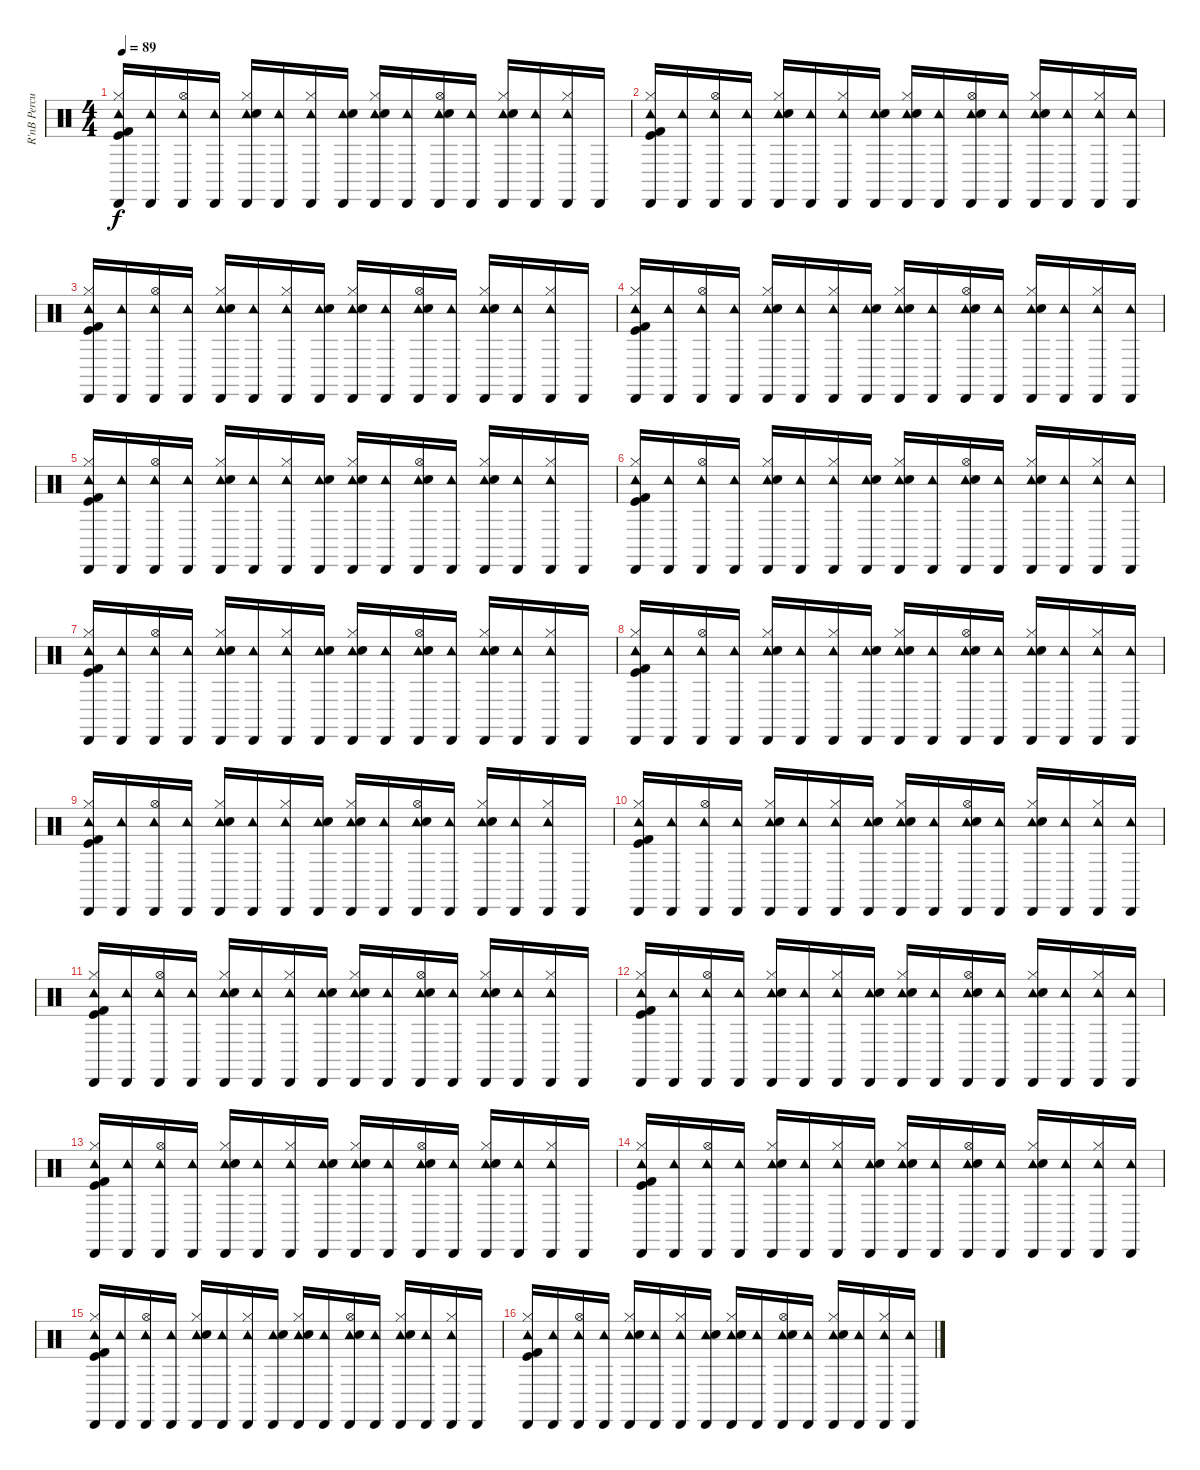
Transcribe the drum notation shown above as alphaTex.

\track ("R'nB Percussion" "R'nB Percu") {instrument percussion}
\staff {score}
\articulation defaults
\ts (4 4)
\tempo 89
\clef neutral
\ks c
("Tambourine (hit)" "Cabasa (hit)" "Kick (hit) 2" "Hi-Hat (closed)" "Kick (hit)").16{dy f} ("Cabasa (hit)" "Tambourine (hit)").16 ("Tambourine (hit)" "Cabasa (hit)" "Hi-Hat (open)").16 ("Tambourine (hit)" "Cabasa (hit)").16 ("Cabasa (hit)" "Tambourine (hit)" "Hi-Hat (closed)" "Hand Clap (hit)").16 ("Cabasa (hit)" "Tambourine (hit)").16 ("Tambourine (hit)" "Cabasa (hit)" "Hi-Hat (closed)").16 ("Cabasa (hit)" "Tambourine (hit)" "Hand Clap (hit)").16 ("Cabasa (hit)" "Tambourine (hit)" "Hand Clap (hit)" "Hi-Hat (closed)").16 ("Tambourine (hit)" "Cabasa (hit)").16 ("Tambourine (hit)" "Cabasa (hit)" "Hi-Hat (open)" "Hand Clap (hit)").16 ("Tambourine (hit)" "Cabasa (hit)").16 ("Cabasa (hit)" "Tambourine (hit)" "Hi-Hat (closed)" "Hand Clap (hit)").16 ("Cabasa (hit)" "Tambourine (hit)").16 ("Cabasa (hit)" "Tambourine (hit)" "Hi-Hat (closed)").16 "Cabasa (hit)".16 |
("Cabasa (hit)" "Tambourine (hit)" "Kick (hit)" "Kick (hit) 2" "Hi-Hat (closed)").16 ("Tambourine (hit)" "Cabasa (hit)").16 ("Cabasa (hit)" "Tambourine (hit)" "Hi-Hat (open)").16 ("Tambourine (hit)" "Cabasa (hit)").16 ("Cabasa (hit)" "Tambourine (hit)" "Hi-Hat (closed)" "Hand Clap (hit)").16 ("Tambourine (hit)" "Cabasa (hit)").16 ("Cabasa (hit)" "Tambourine (hit)" "Hi-Hat (closed)").16 ("Cabasa (hit)" "Tambourine (hit)" "Hand Clap (hit)").16 ("Cabasa (hit)" "Tambourine (hit)" "Hi-Hat (closed)" "Hand Clap (hit)").16 ("Tambourine (hit)" "Cabasa (hit)").16 ("Tambourine (hit)" "Cabasa (hit)" "Hi-Hat (open)" "Hand Clap (hit)").16 ("Tambourine (hit)" "Cabasa (hit)").16 ("Cabasa (hit)" "Tambourine (hit)" "Hi-Hat (closed)" "Hand Clap (hit)").16 ("Cabasa (hit)" "Tambourine (hit)").16 ("Tambourine (hit)" "Cabasa (hit)" "Hi-Hat (closed)").16 ("Tambourine (hit)" "Cabasa (hit)").16 |
("Cabasa (hit)" "Tambourine (hit)" "Kick (hit)" "Kick (hit) 2" "Hi-Hat (closed)").16 ("Tambourine (hit)" "Cabasa (hit)").16 ("Tambourine (hit)" "Cabasa (hit)" "Hi-Hat (open)").16 ("Cabasa (hit)" "Tambourine (hit)").16 ("Cabasa (hit)" "Tambourine (hit)" "Hi-Hat (closed)" "Hand Clap (hit)").16 ("Cabasa (hit)" "Tambourine (hit)").16 ("Cabasa (hit)" "Tambourine (hit)" "Hi-Hat (closed)").16 ("Cabasa (hit)" "Tambourine (hit)" "Hand Clap (hit)").16 ("Tambourine (hit)" "Cabasa (hit)" "Hi-Hat (closed)" "Hand Clap (hit)").16 ("Cabasa (hit)" "Tambourine (hit)").16 ("Tambourine (hit)" "Cabasa (hit)" "Hi-Hat (open)" "Hand Clap (hit)").16 ("Tambourine (hit)" "Cabasa (hit)").16 ("Cabasa (hit)" "Tambourine (hit)" "Hand Clap (hit)" "Hi-Hat (closed)").16 ("Tambourine (hit)" "Cabasa (hit)").16 ("Tambourine (hit)" "Cabasa (hit)" "Hi-Hat (closed)").16 "Cabasa (hit)".16 |
("Cabasa (hit)" "Tambourine (hit)" "Kick (hit) 2" "Kick (hit)" "Hi-Hat (closed)").16 ("Cabasa (hit)" "Tambourine (hit)").16 ("Tambourine (hit)" "Cabasa (hit)" "Hi-Hat (open)").16 ("Cabasa (hit)" "Tambourine (hit)").16 ("Tambourine (hit)" "Cabasa (hit)" "Hi-Hat (closed)" "Hand Clap (hit)").16 ("Tambourine (hit)" "Cabasa (hit)").16 ("Cabasa (hit)" "Tambourine (hit)" "Hi-Hat (closed)").16 ("Tambourine (hit)" "Cabasa (hit)" "Hand Clap (hit)").16 ("Cabasa (hit)" "Tambourine (hit)" "Hi-Hat (closed)" "Hand Clap (hit)").16 ("Tambourine (hit)" "Cabasa (hit)").16 ("Cabasa (hit)" "Tambourine (hit)" "Hi-Hat (open)" "Hand Clap (hit)").16 ("Tambourine (hit)" "Cabasa (hit)").16 ("Cabasa (hit)" "Tambourine (hit)" "Hi-Hat (closed)" "Hand Clap (hit)").16 ("Cabasa (hit)" "Tambourine (hit)").16 ("Tambourine (hit)" "Cabasa (hit)" "Hi-Hat (closed)").16 ("Tambourine (hit)" "Cabasa (hit)").16 |
("Tambourine (hit)" "Cabasa (hit)" "Kick (hit) 2" "Hi-Hat (closed)" "Kick (hit)").16 ("Cabasa (hit)" "Tambourine (hit)").16 ("Tambourine (hit)" "Cabasa (hit)" "Hi-Hat (open)").16 ("Tambourine (hit)" "Cabasa (hit)").16 ("Tambourine (hit)" "Cabasa (hit)" "Hi-Hat (closed)" "Hand Clap (hit)").16 ("Cabasa (hit)" "Tambourine (hit)").16 ("Cabasa (hit)" "Tambourine (hit)" "Hi-Hat (closed)").16 ("Cabasa (hit)" "Tambourine (hit)" "Hand Clap (hit)").16 ("Cabasa (hit)" "Tambourine (hit)" "Hand Clap (hit)" "Hi-Hat (closed)").16 ("Cabasa (hit)" "Tambourine (hit)").16 ("Tambourine (hit)" "Cabasa (hit)" "Hi-Hat (open)" "Hand Clap (hit)").16 ("Tambourine (hit)" "Cabasa (hit)").16 ("Cabasa (hit)" "Tambourine (hit)" "Hi-Hat (closed)" "Hand Clap (hit)").16 ("Cabasa (hit)" "Tambourine (hit)").16 ("Tambourine (hit)" "Cabasa (hit)" "Hi-Hat (closed)").16 "Cabasa (hit)".16 |
("Cabasa (hit)" "Tambourine (hit)" "Hi-Hat (closed)" "Kick (hit)" "Kick (hit) 2").16 ("Tambourine (hit)" "Cabasa (hit)").16 ("Cabasa (hit)" "Tambourine (hit)" "Hi-Hat (open)").16 ("Cabasa (hit)" "Tambourine (hit)").16 ("Cabasa (hit)" "Tambourine (hit)" "Hi-Hat (closed)" "Hand Clap (hit)").16 ("Tambourine (hit)" "Cabasa (hit)").16 ("Cabasa (hit)" "Tambourine (hit)" "Hi-Hat (closed)").16 ("Tambourine (hit)" "Cabasa (hit)" "Hand Clap (hit)").16 ("Cabasa (hit)" "Tambourine (hit)" "Hand Clap (hit)" "Hi-Hat (closed)").16 ("Tambourine (hit)" "Cabasa (hit)").16 ("Cabasa (hit)" "Tambourine (hit)" "Hi-Hat (open)" "Hand Clap (hit)").16 ("Tambourine (hit)" "Cabasa (hit)").16 ("Cabasa (hit)" "Tambourine (hit)" "Hi-Hat (closed)" "Hand Clap (hit)").16 ("Tambourine (hit)" "Cabasa (hit)").16 ("Tambourine (hit)" "Cabasa (hit)" "Hi-Hat (closed)").16 ("Tambourine (hit)" "Cabasa (hit)").16 |
("Tambourine (hit)" "Cabasa (hit)" "Kick (hit) 2" "Hi-Hat (closed)" "Kick (hit)").16 ("Tambourine (hit)" "Cabasa (hit)").16 ("Tambourine (hit)" "Cabasa (hit)" "Hi-Hat (open)").16 ("Tambourine (hit)" "Cabasa (hit)").16 ("Tambourine (hit)" "Cabasa (hit)" "Hand Clap (hit)" "Hi-Hat (closed)").16 ("Tambourine (hit)" "Cabasa (hit)").16 ("Tambourine (hit)" "Cabasa (hit)" "Hi-Hat (closed)").16 ("Tambourine (hit)" "Cabasa (hit)" "Hand Clap (hit)").16 ("Tambourine (hit)" "Cabasa (hit)" "Hand Clap (hit)" "Hi-Hat (closed)").16 ("Cabasa (hit)" "Tambourine (hit)").16 ("Cabasa (hit)" "Tambourine (hit)" "Hi-Hat (open)" "Hand Clap (hit)").16 ("Tambourine (hit)" "Cabasa (hit)").16 ("Cabasa (hit)" "Tambourine (hit)" "Hi-Hat (closed)" "Hand Clap (hit)").16 ("Tambourine (hit)" "Cabasa (hit)").16 ("Cabasa (hit)" "Tambourine (hit)" "Hi-Hat (closed)").16 "Cabasa (hit)".16 |
("Cabasa (hit)" "Tambourine (hit)" "Kick (hit) 2" "Kick (hit)" "Hi-Hat (closed)").16 ("Cabasa (hit)" "Tambourine (hit)").16 ("Tambourine (hit)" "Cabasa (hit)" "Hi-Hat (open)").16 ("Cabasa (hit)" "Tambourine (hit)").16 ("Tambourine (hit)" "Cabasa (hit)" "Hi-Hat (closed)" "Hand Clap (hit)").16 ("Tambourine (hit)" "Cabasa (hit)").16 ("Cabasa (hit)" "Tambourine (hit)" "Hi-Hat (closed)").16 ("Tambourine (hit)" "Cabasa (hit)" "Hand Clap (hit)").16 ("Cabasa (hit)" "Tambourine (hit)" "Hi-Hat (closed)" "Hand Clap (hit)").16 ("Tambourine (hit)" "Cabasa (hit)").16 ("Cabasa (hit)" "Tambourine (hit)" "Hi-Hat (open)" "Hand Clap (hit)").16 ("Tambourine (hit)" "Cabasa (hit)").16 ("Cabasa (hit)" "Tambourine (hit)" "Hi-Hat (closed)" "Hand Clap (hit)").16 ("Cabasa (hit)" "Tambourine (hit)").16 ("Tambourine (hit)" "Cabasa (hit)" "Hi-Hat (closed)").16 ("Tambourine (hit)" "Cabasa (hit)").16 |
("Tambourine (hit)" "Cabasa (hit)" "Kick (hit) 2" "Hi-Hat (closed)" "Kick (hit)").16 ("Cabasa (hit)" "Tambourine (hit)").16 ("Tambourine (hit)" "Cabasa (hit)" "Hi-Hat (open)").16 ("Tambourine (hit)" "Cabasa (hit)").16 ("Tambourine (hit)" "Cabasa (hit)" "Hi-Hat (closed)" "Hand Clap (hit)").16 ("Cabasa (hit)" "Tambourine (hit)").16 ("Cabasa (hit)" "Tambourine (hit)" "Hi-Hat (closed)").16 ("Cabasa (hit)" "Tambourine (hit)" "Hand Clap (hit)").16 ("Cabasa (hit)" "Tambourine (hit)" "Hand Clap (hit)" "Hi-Hat (closed)").16 ("Cabasa (hit)" "Tambourine (hit)").16 ("Tambourine (hit)" "Cabasa (hit)" "Hi-Hat (open)" "Hand Clap (hit)").16 ("Tambourine (hit)" "Cabasa (hit)").16 ("Cabasa (hit)" "Tambourine (hit)" "Hi-Hat (closed)" "Hand Clap (hit)").16 ("Cabasa (hit)" "Tambourine (hit)").16 ("Tambourine (hit)" "Cabasa (hit)" "Hi-Hat (closed)").16 "Cabasa (hit)".16 |
("Cabasa (hit)" "Tambourine (hit)" "Hi-Hat (closed)" "Kick (hit)" "Kick (hit) 2").16 ("Tambourine (hit)" "Cabasa (hit)").16 ("Cabasa (hit)" "Tambourine (hit)" "Hi-Hat (open)").16 ("Cabasa (hit)" "Tambourine (hit)").16 ("Cabasa (hit)" "Tambourine (hit)" "Hi-Hat (closed)" "Hand Clap (hit)").16 ("Tambourine (hit)" "Cabasa (hit)").16 ("Cabasa (hit)" "Tambourine (hit)" "Hi-Hat (closed)").16 ("Tambourine (hit)" "Cabasa (hit)" "Hand Clap (hit)").16 ("Cabasa (hit)" "Tambourine (hit)" "Hand Clap (hit)" "Hi-Hat (closed)").16 ("Tambourine (hit)" "Cabasa (hit)").16 ("Cabasa (hit)" "Tambourine (hit)" "Hi-Hat (open)" "Hand Clap (hit)").16 ("Tambourine (hit)" "Cabasa (hit)").16 ("Cabasa (hit)" "Tambourine (hit)" "Hi-Hat (closed)" "Hand Clap (hit)").16 ("Tambourine (hit)" "Cabasa (hit)").16 ("Tambourine (hit)" "Cabasa (hit)" "Hi-Hat (closed)").16 ("Tambourine (hit)" "Cabasa (hit)").16 |
("Cabasa (hit)" "Tambourine (hit)" "Kick (hit)" "Hi-Hat (closed)" "Kick (hit) 2").16 ("Tambourine (hit)" "Cabasa (hit)").16 ("Cabasa (hit)" "Tambourine (hit)" "Hi-Hat (open)").16 ("Cabasa (hit)" "Tambourine (hit)").16 ("Tambourine (hit)" "Cabasa (hit)" "Hand Clap (hit)" "Hi-Hat (closed)").16 ("Cabasa (hit)" "Tambourine (hit)").16 ("Cabasa (hit)" "Tambourine (hit)" "Hi-Hat (closed)").16 ("Tambourine (hit)" "Cabasa (hit)" "Hand Clap (hit)").16 ("Tambourine (hit)" "Cabasa (hit)" "Hi-Hat (closed)" "Hand Clap (hit)").16 ("Tambourine (hit)" "Cabasa (hit)").16 ("Cabasa (hit)" "Tambourine (hit)" "Hand Clap (hit)" "Hi-Hat (open)").16 ("Tambourine (hit)" "Cabasa (hit)").16 ("Cabasa (hit)" "Tambourine (hit)" "Hand Clap (hit)" "Hi-Hat (closed)").16 ("Cabasa (hit)" "Tambourine (hit)").16 ("Tambourine (hit)" "Cabasa (hit)" "Hi-Hat (closed)").16 "Cabasa (hit)".16 |
("Tambourine (hit)" "Cabasa (hit)" "Kick (hit)" "Kick (hit) 2" "Hi-Hat (closed)").16 ("Tambourine (hit)" "Cabasa (hit)").16 ("Tambourine (hit)" "Cabasa (hit)" "Hi-Hat (open)").16 ("Tambourine (hit)" "Cabasa (hit)").16 ("Cabasa (hit)" "Tambourine (hit)" "Hand Clap (hit)" "Hi-Hat (closed)").16 ("Tambourine (hit)" "Cabasa (hit)").16 ("Tambourine (hit)" "Cabasa (hit)" "Hi-Hat (closed)").16 ("Cabasa (hit)" "Tambourine (hit)" "Hand Clap (hit)").16 ("Cabasa (hit)" "Tambourine (hit)" "Hand Clap (hit)" "Hi-Hat (closed)").16 ("Cabasa (hit)" "Tambourine (hit)").16 ("Cabasa (hit)" "Tambourine (hit)" "Hand Clap (hit)" "Hi-Hat (open)").16 ("Cabasa (hit)" "Tambourine (hit)").16 ("Tambourine (hit)" "Cabasa (hit)" "Hi-Hat (closed)" "Hand Clap (hit)").16 ("Tambourine (hit)" "Cabasa (hit)").16 ("Tambourine (hit)" "Cabasa (hit)" "Hi-Hat (closed)").16 ("Cabasa (hit)" "Tambourine (hit)").16 |
("Tambourine (hit)" "Cabasa (hit)" "Kick (hit)" "Kick (hit) 2" "Hi-Hat (closed)").16 ("Tambourine (hit)" "Cabasa (hit)").16 ("Tambourine (hit)" "Cabasa (hit)" "Hi-Hat (open)").16 ("Cabasa (hit)" "Tambourine (hit)").16 ("Tambourine (hit)" "Cabasa (hit)" "Hand Clap (hit)" "Hi-Hat (closed)").16 ("Cabasa (hit)" "Tambourine (hit)").16 ("Cabasa (hit)" "Tambourine (hit)" "Hi-Hat (closed)").16 ("Cabasa (hit)" "Tambourine (hit)" "Hand Clap (hit)").16 ("Cabasa (hit)" "Tambourine (hit)" "Hi-Hat (closed)" "Hand Clap (hit)").16 ("Cabasa (hit)" "Tambourine (hit)").16 ("Tambourine (hit)" "Cabasa (hit)" "Hand Clap (hit)" "Hi-Hat (open)").16 ("Cabasa (hit)" "Tambourine (hit)").16 ("Tambourine (hit)" "Cabasa (hit)" "Hi-Hat (closed)" "Hand Clap (hit)").16 ("Tambourine (hit)" "Cabasa (hit)").16 ("Cabasa (hit)" "Tambourine (hit)" "Hi-Hat (closed)").16 "Cabasa (hit)".16 |
("Cabasa (hit)" "Tambourine (hit)" "Kick (hit)" "Hi-Hat (closed)" "Kick (hit) 2").16 ("Tambourine (hit)" "Cabasa (hit)").16 ("Tambourine (hit)" "Cabasa (hit)" "Hi-Hat (open)").16 ("Cabasa (hit)" "Tambourine (hit)").16 ("Tambourine (hit)" "Cabasa (hit)" "Hand Clap (hit)" "Hi-Hat (closed)").16 ("Cabasa (hit)" "Tambourine (hit)").16 ("Cabasa (hit)" "Tambourine (hit)" "Hi-Hat (closed)").16 ("Tambourine (hit)" "Cabasa (hit)" "Hand Clap (hit)").16 ("Cabasa (hit)" "Tambourine (hit)" "Hand Clap (hit)" "Hi-Hat (closed)").16 ("Tambourine (hit)" "Cabasa (hit)").16 ("Cabasa (hit)" "Tambourine (hit)" "Hi-Hat (open)" "Hand Clap (hit)").16 ("Cabasa (hit)" "Tambourine (hit)").16 ("Cabasa (hit)" "Tambourine (hit)" "Hand Clap (hit)" "Hi-Hat (closed)").16 ("Cabasa (hit)" "Tambourine (hit)").16 ("Cabasa (hit)" "Tambourine (hit)" "Hi-Hat (closed)").16 ("Cabasa (hit)" "Tambourine (hit)").16 |
("Cabasa (hit)" "Tambourine (hit)" "Kick (hit) 2" "Hi-Hat (closed)" "Kick (hit)").16 ("Cabasa (hit)" "Tambourine (hit)").16 ("Tambourine (hit)" "Cabasa (hit)" "Hi-Hat (open)").16 ("Tambourine (hit)" "Cabasa (hit)").16 ("Cabasa (hit)" "Tambourine (hit)" "Hand Clap (hit)" "Hi-Hat (closed)").16 ("Cabasa (hit)" "Tambourine (hit)").16 ("Cabasa (hit)" "Tambourine (hit)" "Hi-Hat (closed)").16 ("Tambourine (hit)" "Cabasa (hit)" "Hand Clap (hit)").16 ("Cabasa (hit)" "Tambourine (hit)" "Hi-Hat (closed)" "Hand Clap (hit)").16 ("Cabasa (hit)" "Tambourine (hit)").16 ("Tambourine (hit)" "Cabasa (hit)" "Hi-Hat (open)" "Hand Clap (hit)").16 ("Tambourine (hit)" "Cabasa (hit)").16 ("Cabasa (hit)" "Tambourine (hit)" "Hi-Hat (closed)" "Hand Clap (hit)").16 ("Cabasa (hit)" "Tambourine (hit)").16 ("Tambourine (hit)" "Cabasa (hit)" "Hi-Hat (closed)").16 "Cabasa (hit)".16 |
("Cabasa (hit)" "Tambourine (hit)" "Kick (hit)" "Kick (hit) 2" "Hi-Hat (closed)").16 ("Tambourine (hit)" "Cabasa (hit)").16 ("Tambourine (hit)" "Cabasa (hit)" "Hi-Hat (open)").16 ("Tambourine (hit)" "Cabasa (hit)").16 ("Cabasa (hit)" "Tambourine (hit)" "Hand Clap (hit)" "Hi-Hat (closed)").16 ("Tambourine (hit)" "Cabasa (hit)").16 ("Tambourine (hit)" "Cabasa (hit)" "Hi-Hat (closed)").16 ("Tambourine (hit)" "Cabasa (hit)" "Hand Clap (hit)").16 ("Tambourine (hit)" "Cabasa (hit)" "Hi-Hat (closed)" "Hand Clap (hit)").16 ("Cabasa (hit)" "Tambourine (hit)").16 ("Tambourine (hit)" "Cabasa (hit)" "Hi-Hat (open)" "Hand Clap (hit)").16 ("Cabasa (hit)" "Tambourine (hit)").16 ("Cabasa (hit)" "Tambourine (hit)" "Hand Clap (hit)" "Hi-Hat (closed)").16 ("Tambourine (hit)" "Cabasa (hit)").16 ("Cabasa (hit)" "Tambourine (hit)" "Hi-Hat (closed)").16 ("Tambourine (hit)" "Cabasa (hit)").16
